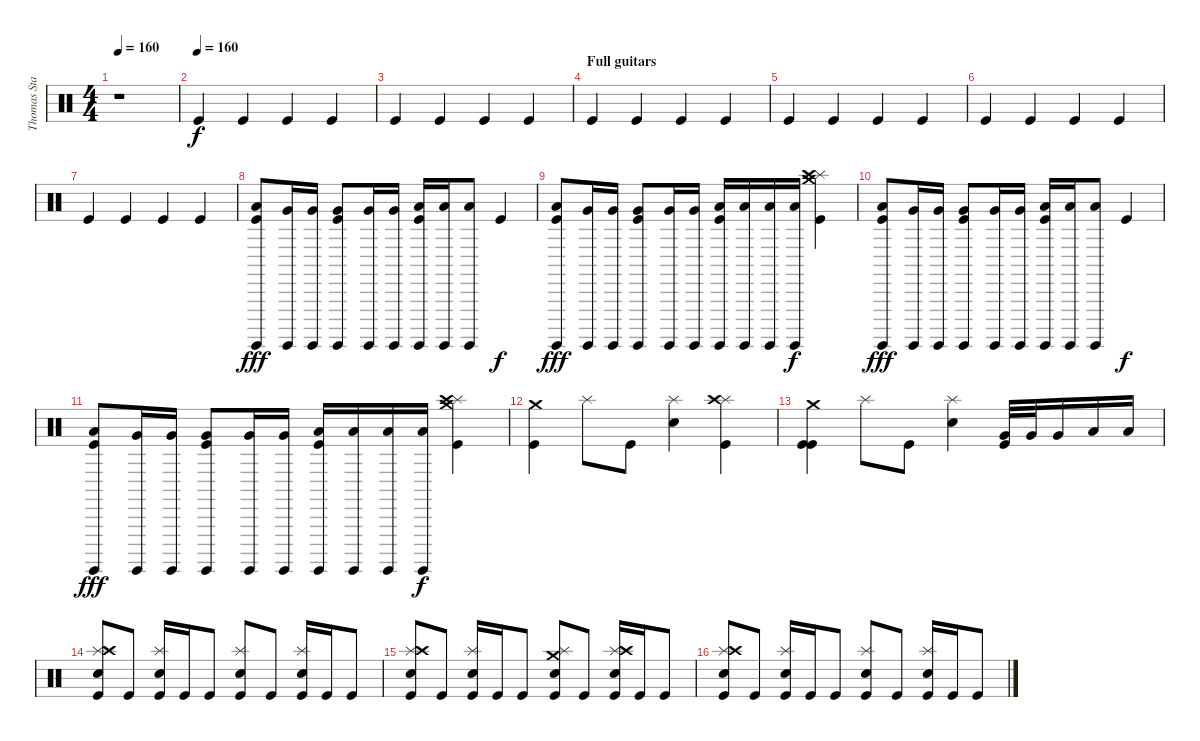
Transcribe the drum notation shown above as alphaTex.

\track ("Thomas Stauch" "Thomas Sta") {instrument percussion}
\staff {score}
\articulation defaults
\ts (4 4)
\tempo 160
\clef neutral
\ks c
r.1{dy f} |
\tempo (160)
"Kick (hit)".4 "Kick (hit)".4 "Kick (hit)".4 "Kick (hit)".4 |
"Kick (hit)".4 "Kick (hit)".4 "Kick (hit)".4 "Kick (hit)".4 |
\section ("" "Full guitars")
"Kick (hit)".4 "Kick (hit)".4 "Kick (hit)".4 "Kick (hit)".4 |
"Kick (hit)".4 "Kick (hit)".4 "Kick (hit)".4 "Kick (hit)".4 |
"Kick (hit)".4 "Kick (hit)".4 "Kick (hit)".4 "Kick (hit)".4 |
"Kick (hit)".4 "Kick (hit)".4 "Kick (hit)".4 "Kick (hit)".4 |
("Surdo (hit)" "Low Tom (hit)" "Kick (hit)").8{dy fff} ("Surdo (hit)" "Very Low Tom (hit)").16 ("Surdo (hit)" "Very Low Tom (hit)").16 ("Surdo (hit)" "Very Low Tom (hit)" "Kick (hit)").8 ("Surdo (hit)" "Very Low Tom (hit)").16 ("Surdo (hit)" "Very Low Tom (hit)").16 ("Surdo (hit)" "Low Floor Tom (hit)" "Kick (hit)").16 ("Surdo (hit)" "Low Floor Tom (hit)").16 ("Surdo (hit)" "Low Floor Tom (hit)").8 "Kick (hit)".4{dy f} |
("Surdo (hit)" "Low Tom (hit)" "Kick (hit)").8{dy fff} ("Surdo (hit)" "Very Low Tom (hit)").16 ("Surdo (hit)" "Very Low Tom (hit)").16 ("Surdo (hit)" "Very Low Tom (hit)" "Kick (hit)").8 ("Surdo (hit)" "Very Low Tom (hit)").16 ("Surdo (hit)" "Very Low Tom (hit)").16 ("Surdo (hit)" "Low Floor Tom (hit)" "Kick (hit)").16 ("Surdo (hit)" "Low Floor Tom (hit)").16 ("Surdo (hit)" "Low Floor Tom (hit)").16 ("Surdo (hit)" "Low Floor Tom (hit)").16{dy f} ("Crash medium (hit)" "Splash (hit)" "Crash high (hit)" "Kick (hit)").4 |
("Surdo (hit)" "Low Tom (hit)" "Kick (hit)").8{dy fff} ("Surdo (hit)" "Very Low Tom (hit)").16 ("Surdo (hit)" "Very Low Tom (hit)").16 ("Surdo (hit)" "Very Low Tom (hit)" "Kick (hit)").8 ("Surdo (hit)" "Very Low Tom (hit)").16 ("Surdo (hit)" "Very Low Tom (hit)").16 ("Surdo (hit)" "Low Floor Tom (hit)" "Kick (hit)").16 ("Surdo (hit)" "Low Floor Tom (hit)").16 ("Surdo (hit)" "Low Floor Tom (hit)").8 "Kick (hit)".4{dy f} |
("Surdo (hit)" "Low Tom (hit)" "Kick (hit)").8{dy fff} ("Surdo (hit)" "Very Low Tom (hit)").16 ("Surdo (hit)" "Very Low Tom (hit)").16 ("Surdo (hit)" "Very Low Tom (hit)" "Kick (hit)").8 ("Surdo (hit)" "Very Low Tom (hit)").16 ("Surdo (hit)" "Very Low Tom (hit)").16 ("Surdo (hit)" "Low Floor Tom (hit)" "Kick (hit)").16 ("Surdo (hit)" "Low Floor Tom (hit)").16 ("Surdo (hit)" "Low Floor Tom (hit)").16 ("Surdo (hit)" "Low Floor Tom (hit)").16{dy f} ("Crash medium (hit)" "Splash (hit)" "Crash high (hit)" "Kick (hit)").4 |
("Crash medium (hit)" "Kick (hit)").4 "Splash (hit)".8 "Kick (hit)".8 ("Splash (hit)" "Electric Snare (hit)").4 ("Splash (hit)" "Crash high (hit)" "Kick (hit)").4 |
("Crash medium (hit)" "Kick (hit)" "Kick (hit)").4 "Splash (hit)".8 "Kick (hit)".8 ("Splash (hit)" "Electric Snare (hit)").4 ("Very Low Tom (hit)" "Kick (hit)").32 "Very Low Tom (hit)".32 "Very Low Tom (hit)".16 "Low Floor Tom (hit)".16 "Low Floor Tom (hit)".16 |
("Splash (hit)" "Crash high (hit)" "Electric Snare (hit)" "Kick (hit)").8 "Kick (hit)".8 ("Splash (hit)" "Electric Snare (hit)" "Kick (hit)").16 "Kick (hit)".16 "Kick (hit)".8 ("Splash (hit)" "Electric Snare (hit)" "Kick (hit)").8 "Kick (hit)".8 ("Splash (hit)" "Electric Snare (hit)" "Kick (hit)").16 "Kick (hit)".16 "Kick (hit)".8 |
("Splash (hit)" "Crash high (hit)" "Electric Snare (hit)" "Kick (hit)").8 "Kick (hit)".8 ("Splash (hit)" "Electric Snare (hit)" "Kick (hit)").16 "Kick (hit)".16 "Kick (hit)".8 ("Crash medium (hit)" "Splash (hit)" "Electric Snare (hit)" "Kick (hit)").8 "Kick (hit)".8 ("Splash (hit)" "Crash high (hit)" "Electric Snare (hit)" "Kick (hit)").16 "Kick (hit)".16 "Kick (hit)".8 |
("Splash (hit)" "Crash high (hit)" "Electric Snare (hit)" "Kick (hit)").8 "Kick (hit)".8 ("Splash (hit)" "Electric Snare (hit)" "Kick (hit)").16 "Kick (hit)".16 "Kick (hit)".8 ("Splash (hit)" "Electric Snare (hit)" "Kick (hit)").8 "Kick (hit)".8 ("Splash (hit)" "Electric Snare (hit)" "Kick (hit)").16 "Kick (hit)".16 "Kick (hit)".8
